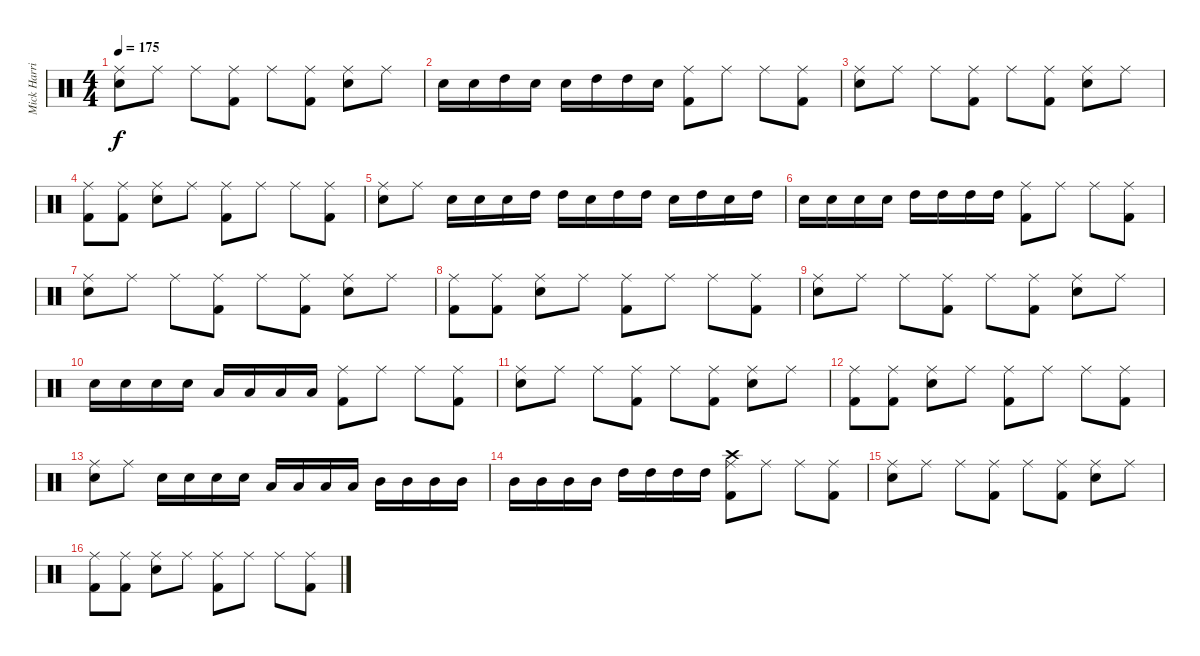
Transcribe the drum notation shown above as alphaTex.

\track ("Mick Harris (Drums)" "Mick Harri") {instrument percussion}
\staff {score}
\articulation defaults
\ts (4 4)
\tempo 175
\clef neutral
\ks c
("Electric Snare (hit)" "Ride (middle)").8{dy f} "Ride (middle)".8 "Ride (middle)".8 ("Kick (hit) 2" "Ride (middle)").8 "Ride (middle)".8 ("Kick (hit) 2" "Ride (middle)").8 ("Electric Snare (hit)" "Ride (middle)").8 "Ride (middle)".8 |
"Electric Snare (hit)".16 "Electric Snare (hit)".16 "High Tom (hit)".16 "Electric Snare (hit)".16 "Electric Snare (hit)".16 "High Tom (hit)".16 "High Tom (hit)".16 "Electric Snare (hit)".16 ("Kick (hit) 2" "Ride (middle)").8 "Ride (middle)".8 "Ride (middle)".8 ("Kick (hit) 2" "Ride (middle)").8 |
("Electric Snare (hit)" "Ride (middle)").8 "Ride (middle)".8 "Ride (middle)".8 ("Kick (hit) 2" "Ride (middle)").8 "Ride (middle)".8 ("Kick (hit) 2" "Ride (middle)").8 ("Electric Snare (hit)" "Ride (middle)").8 "Ride (middle)".8 |
("Kick (hit) 2" "Ride (middle)").8 ("Kick (hit) 2" "Ride (middle)").8 ("Electric Snare (hit)" "Ride (middle)").8 "Ride (middle)".8 ("Kick (hit) 2" "Ride (middle)").8 "Ride (middle)".8 "Ride (middle)".8 ("Kick (hit) 2" "Ride (middle)").8 |
("Electric Snare (hit)" "Ride (middle)").8 "Ride (middle)".8 "Electric Snare (hit)".16 "Electric Snare (hit)".16 "Electric Snare (hit)".16 "High Tom (hit)".16 "High Tom (hit)".16 "Electric Snare (hit)".16 "High Tom (hit)".16 "High Tom (hit)".16 "Electric Snare (hit)".16 "High Tom (hit)".16 "Electric Snare (hit)".16 "High Tom (hit)".16 |
"Electric Snare (hit)".16 "Electric Snare (hit)".16 "Electric Snare (hit)".16 "Electric Snare (hit)".16 "High Tom (hit)".16 "High Tom (hit)".16 "High Tom (hit)".16 "High Tom (hit)".16 ("Kick (hit) 2" "Ride (middle)").8 "Ride (middle)".8 "Ride (middle)".8 ("Kick (hit) 2" "Ride (middle)").8 |
("Electric Snare (hit)" "Ride (middle)").8 "Ride (middle)".8 "Ride (middle)".8 ("Kick (hit) 2" "Ride (middle)").8 "Ride (middle)".8 ("Kick (hit) 2" "Ride (middle)").8 ("Electric Snare (hit)" "Ride (middle)").8 "Ride (middle)".8 |
("Kick (hit) 2" "Ride (middle)").8 ("Kick (hit) 2" "Ride (middle)").8 ("Electric Snare (hit)" "Ride (middle)").8 "Ride (middle)".8 ("Kick (hit) 2" "Ride (middle)").8 "Ride (middle)".8 "Ride (middle)".8 ("Kick (hit) 2" "Ride (middle)").8 |
("Electric Snare (hit)" "Ride (middle)").8 "Ride (middle)".8 "Ride (middle)".8 ("Kick (hit) 2" "Ride (middle)").8 "Ride (middle)".8 ("Kick (hit) 2" "Ride (middle)").8 ("Electric Snare (hit)" "Ride (middle)").8 "Ride (middle)".8 |
"Electric Snare (hit)".16 "Electric Snare (hit)".16 "Electric Snare (hit)".16 "Electric Snare (hit)".16 "Low Tom (hit)".16 "Low Tom (hit)".16 "Low Tom (hit)".16 "Low Tom (hit)".16 ("Kick (hit) 2" "Ride (middle)").8 "Ride (middle)".8 "Ride (middle)".8 ("Kick (hit) 2" "Ride (middle)").8 |
("Electric Snare (hit)" "Ride (middle)").8 "Ride (middle)".8 "Ride (middle)".8 ("Kick (hit) 2" "Ride (middle)").8 "Ride (middle)".8 ("Kick (hit) 2" "Ride (middle)").8 ("Electric Snare (hit)" "Ride (middle)").8 "Ride (middle)".8 |
("Kick (hit) 2" "Ride (middle)").8 ("Kick (hit) 2" "Ride (middle)").8 ("Electric Snare (hit)" "Ride (middle)").8 "Ride (middle)".8 ("Kick (hit) 2" "Ride (middle)").8 "Ride (middle)".8 "Ride (middle)".8 ("Kick (hit) 2" "Ride (middle)").8 |
("Electric Snare (hit)" "Ride (middle)").8 "Ride (middle)".8 "Electric Snare (hit)".16 "Electric Snare (hit)".16 "Electric Snare (hit)".16 "Electric Snare (hit)".16 "Low Tom (hit)".16 "Low Tom (hit)".16 "Low Tom (hit)".16 "Low Tom (hit)".16 "Mid Tom (hit)".16 "Mid Tom (hit)".16 "Mid Tom (hit)".16 "Mid Tom (hit)".16 |
"Mid Tom (hit)".16 "Mid Tom (hit)".16 "Mid Tom (hit)".16 "Mid Tom (hit)".16 "High Tom (hit)".16 "High Tom (hit)".16 "High Tom (hit)".16 "High Tom (hit)".16 ("Kick (hit) 2" "Crash high (hit)" "Ride (middle)").8 "Ride (middle)".8 "Ride (middle)".8 ("Kick (hit) 2" "Ride (middle)").8 |
("Electric Snare (hit)" "Ride (middle)").8 "Ride (middle)".8 "Ride (middle)".8 ("Kick (hit) 2" "Ride (middle)").8 "Ride (middle)".8 ("Kick (hit) 2" "Ride (middle)").8 ("Electric Snare (hit)" "Ride (middle)").8 "Ride (middle)".8 |
("Kick (hit) 2" "Ride (middle)").8 ("Kick (hit) 2" "Ride (middle)").8 ("Electric Snare (hit)" "Ride (middle)").8 "Ride (middle)".8 ("Kick (hit) 2" "Ride (middle)").8 "Ride (middle)".8 "Ride (middle)".8 ("Kick (hit) 2" "Ride (middle)").8
